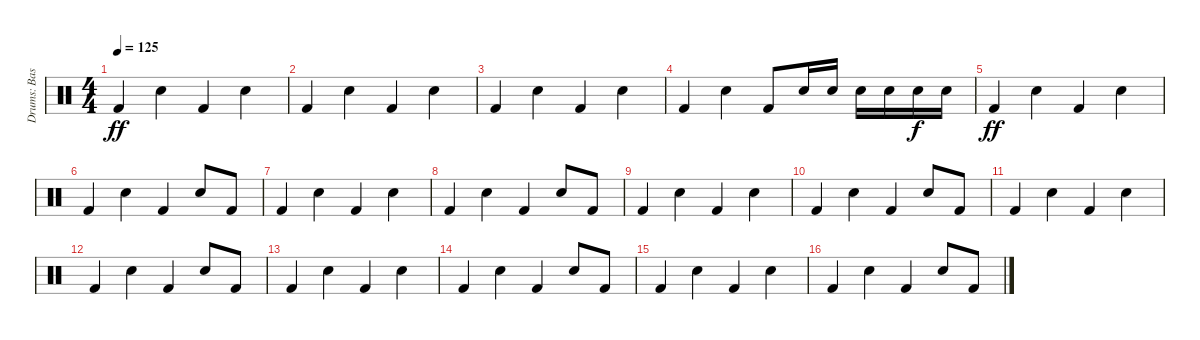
\track ("Drums: Bass, Snare" "Drums: Bas") {instrument percussion}
\staff {score}
\articulation defaults
\ts (4 4)
\tempo 125
\clef neutral
\ks c "Kick (hit) 2".4{dy ff} "Electric Snare (hit)".4 "Kick (hit) 2".4 "Electric Snare (hit)".4
|
"Kick (hit) 2".4 "Electric Snare (hit)".4 "Kick (hit) 2".4 "Electric Snare (hit)".4 |
"Kick (hit) 2".4 "Electric Snare (hit)".4 "Kick (hit) 2".4 "Electric Snare (hit)".4 |
"Kick (hit) 2".4 "Electric Snare (hit)".4 "Kick (hit) 2".8 "Electric Snare (hit)".16 "Electric Snare (hit)".16 "Electric Snare (hit)".16 "Electric Snare (hit)".16 "Electric Snare (hit)".16{dy f} "Electric Snare (hit)".16 |
"Kick (hit) 2".4{dy ff} "Electric Snare (hit)".4 "Kick (hit) 2".4 "Electric Snare (hit)".4 |
"Kick (hit) 2".4 "Electric Snare (hit)".4 "Kick (hit) 2".4 "Electric Snare (hit)".8 "Kick (hit) 2".8 |
"Kick (hit) 2".4 "Electric Snare (hit)".4 "Kick (hit) 2".4 "Electric Snare (hit)".4 |
"Kick (hit) 2".4 "Electric Snare (hit)".4 "Kick (hit) 2".4 "Electric Snare (hit)".8 "Kick (hit) 2".8 |
"Kick (hit) 2".4 "Electric Snare (hit)".4 "Kick (hit) 2".4 "Electric Snare (hit)".4 |
"Kick (hit) 2".4 "Electric Snare (hit)".4 "Kick (hit) 2".4 "Electric Snare (hit)".8 "Kick (hit) 2".8 |
"Kick (hit) 2".4 "Electric Snare (hit)".4 "Kick (hit) 2".4 "Electric Snare (hit)".4 |
"Kick (hit) 2".4 "Electric Snare (hit)".4 "Kick (hit) 2".4 "Electric Snare (hit)".8 "Kick (hit) 2".8 |
"Kick (hit) 2".4 "Electric Snare (hit)".4 "Kick (hit) 2".4 "Electric Snare (hit)".4 |
"Kick (hit) 2".4 "Electric Snare (hit)".4 "Kick (hit) 2".4 "Electric Snare (hit)".8 "Kick (hit) 2".8 |
"Kick (hit) 2".4 "Electric Snare (hit)".4 "Kick (hit) 2".4 "Electric Snare (hit)".4 |
"Kick (hit) 2".4 "Electric Snare (hit)".4 "Kick (hit) 2".4 "Electric Snare (hit)".8 "Kick (hit) 2".8
